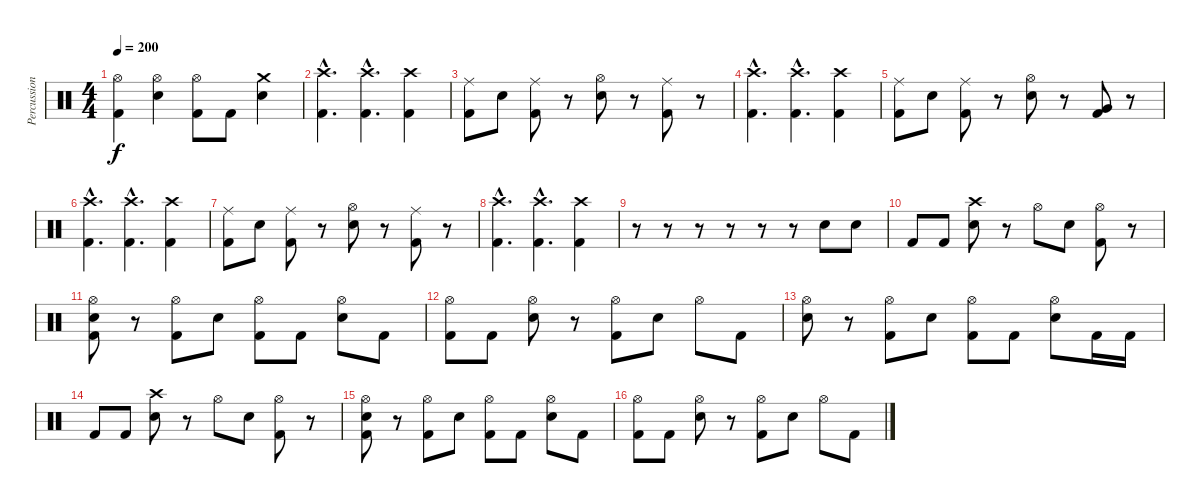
\track ("Percussion" "Percussion") {instrument percussion}
\staff {score}
\articulation defaults
\ts (4 4)
\tempo 200
\clef neutral
\ks c
("Hi-Hat (open)" "Kick (hit) 2").4{dy f} ("Hi-Hat (open)" "Electric Snare (hit)").4 ("Hi-Hat (open)" "Kick (hit) 2").8 "Kick (hit) 2".8 ("Crash medium (hit)" "Electric Snare (hit)").4 |
("Crash high (hit)"{hac} "Kick (hit) 2"{hac}).4{d} ("Crash high (hit)"{hac} "Kick (hit) 2"{hac}).4{d} ("Crash high (hit)" "Kick (hit) 2").4 |
("Ride (middle)" "Kick (hit) 2").8 "Electric Snare (hit)".8 ("Ride (middle)" "Kick (hit) 2").8 r.8 ("Hi-Hat (open)" "Electric Snare (hit)").8 r.8 ("Ride (middle)" "Kick (hit) 2").8 r.8 |
("Crash high (hit)"{hac} "Kick (hit) 2"{hac}).4{d} ("Crash high (hit)"{hac} "Kick (hit) 2"{hac}).4{d} ("Crash high (hit)" "Kick (hit) 2").4 |
("Ride (middle)" "Kick (hit) 2").8 "Electric Snare (hit)".8 ("Ride (middle)" "Kick (hit) 2").8 r.8 ("Hi-Hat (open)" "Electric Snare (hit)").8 r.8 ("Very Low Tom (hit)" "Kick (hit) 2").8 r.8 |
("Crash high (hit)"{hac} "Kick (hit) 2"{hac}).4{d} ("Crash high (hit)"{hac} "Kick (hit) 2"{hac}).4{d} ("Crash high (hit)" "Kick (hit) 2").4 |
("Ride (middle)" "Kick (hit) 2").8 "Electric Snare (hit)".8 ("Ride (middle)" "Kick (hit) 2").8 r.8 ("Hi-Hat (open)" "Electric Snare (hit)").8 r.8 ("Ride (middle)" "Kick (hit) 2").8 r.8 |
("Crash high (hit)"{hac} "Kick (hit) 2"{hac}).4{d} ("Crash high (hit)"{hac} "Kick (hit) 2"{hac}).4{d} ("Crash high (hit)" "Kick (hit) 2").4 |
r.8 r.8 r.8 r.8 r.8 r.8 "Electric Snare (hit)".8 "Electric Snare (hit)".8 |
"Kick (hit) 2".8 "Kick (hit) 2".8 ("Crash high (hit)" "Electric Snare (hit)").8 r.8 "Hi-Hat (open)".8 "Electric Snare (hit)".8 ("Hi-Hat (open)" "Kick (hit) 2").8 r.8 |
("Hi-Hat (open)" "Electric Snare (hit)" "Kick (hit) 2").8 r.8 ("Hi-Hat (open)" "Kick (hit) 2").8 "Electric Snare (hit)".8 ("Hi-Hat (open)" "Kick (hit) 2").8 "Kick (hit) 2".8 ("Hi-Hat (open)" "Electric Snare (hit)").8 "Kick (hit) 2".8 |
("Hi-Hat (open)" "Kick (hit) 2").8 "Kick (hit) 2".8 ("Hi-Hat (open)" "Electric Snare (hit)").8 r.8 ("Hi-Hat (open)" "Kick (hit) 2").8 "Electric Snare (hit)".8 "Hi-Hat (open)".8 "Kick (hit) 2".8 |
("Hi-Hat (open)" "Electric Snare (hit)").8 r.8 ("Hi-Hat (open)" "Kick (hit) 2").8 "Electric Snare (hit)".8 ("Hi-Hat (open)" "Kick (hit) 2").8 "Kick (hit) 2".8 ("Hi-Hat (open)" "Electric Snare (hit)").8 "Kick (hit) 2".16 "Kick (hit) 2".16 |
"Kick (hit) 2".8 "Kick (hit) 2".8 ("Crash high (hit)" "Electric Snare (hit)").8 r.8 "Hi-Hat (open)".8 "Electric Snare (hit)".8 ("Hi-Hat (open)" "Kick (hit) 2").8 r.8 |
("Hi-Hat (open)" "Electric Snare (hit)" "Kick (hit) 2").8 r.8 ("Hi-Hat (open)" "Kick (hit) 2").8 "Electric Snare (hit)".8 ("Hi-Hat (open)" "Kick (hit) 2").8 "Kick (hit) 2".8 ("Hi-Hat (open)" "Electric Snare (hit)").8 "Kick (hit) 2".8 |
("Hi-Hat (open)" "Kick (hit) 2").8 "Kick (hit) 2".8 ("Hi-Hat (open)" "Electric Snare (hit)").8 r.8 ("Hi-Hat (open)" "Kick (hit) 2").8 "Electric Snare (hit)".8 "Hi-Hat (open)".8 "Kick (hit) 2".8
